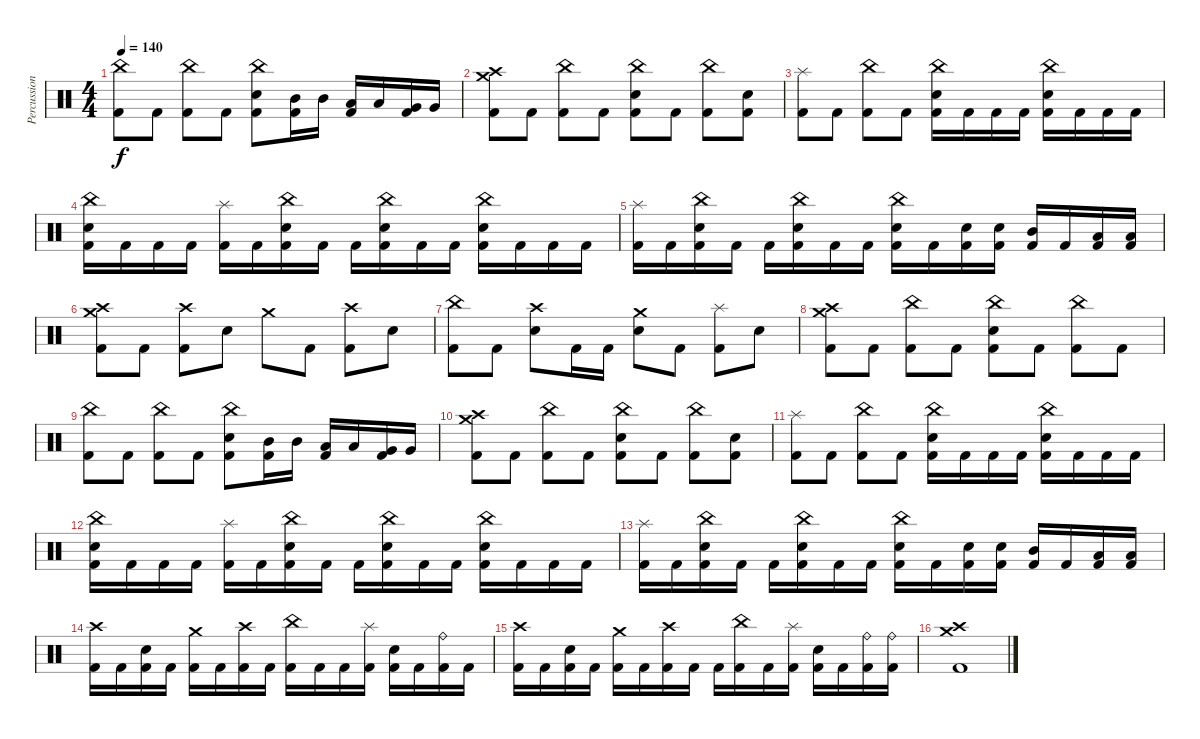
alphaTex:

\track ("Percussion" "Percussion") {instrument percussion}
\staff {score}
\articulation defaults
\ts (4 4)
\tempo 140
\clef neutral
\ks c
("China (hit)" "Kick (hit) 2").8{dy f} "Kick (hit) 2".8 ("China (hit)" "Kick (hit) 2").8 "Kick (hit) 2".8 ("China (hit)" "Electric Snare (hit)" "Kick (hit) 2").8 ("Mid Tom (hit)" "Kick (hit) 2").16 "Mid Tom (hit)".16 ("Low Tom (hit)" "Kick (hit) 2").16 "Low Tom (hit)".16 ("Very Low Tom (hit)" "Kick (hit) 2").16 "Very Low Tom (hit)".16 |
("Crash high (hit)" "Crash medium (hit)" "Kick (hit) 2").8 "Kick (hit) 2".8 ("China (hit)" "Kick (hit) 2").8 "Kick (hit) 2".8 ("China (hit)" "Electric Snare (hit)" "Kick (hit) 2").8 "Kick (hit) 2".8 ("China (hit)" "Kick (hit) 2").8 ("Electric Snare (hit)" "Kick (hit) 2").8 |
("Splash (hit)" "Kick (hit) 2").8 "Kick (hit) 2".8 ("China (hit)" "Kick (hit) 2").8 "Kick (hit) 2".8 ("China (hit)" "Electric Snare (hit)" "Kick (hit) 2").16 "Kick (hit) 2".16 "Kick (hit) 2".16 "Kick (hit) 2".16 ("China (hit)" "Electric Snare (hit)" "Kick (hit) 2").16 "Kick (hit) 2".16 "Kick (hit) 2".16 "Kick (hit) 2".16 |
("China (hit)" "Electric Snare (hit)" "Kick (hit) 2").16 "Kick (hit) 2".16 "Kick (hit) 2".16 "Kick (hit) 2".16 ("Splash (hit)" "Kick (hit) 2").16 "Kick (hit) 2".16 ("China (hit)" "Electric Snare (hit)" "Kick (hit) 2").16 "Kick (hit) 2".16 "Kick (hit) 2".16 ("China (hit)" "Electric Snare (hit)" "Kick (hit) 2").16 "Kick (hit) 2".16 "Kick (hit) 2".16 ("China (hit)" "Electric Snare (hit)" "Kick (hit) 2").16 "Kick (hit) 2".16 "Kick (hit) 2".16 "Kick (hit) 2".16 |
("Splash (hit)" "Kick (hit) 2").16 "Kick (hit) 2".16 ("China (hit)" "Electric Snare (hit)" "Kick (hit) 2").16 "Kick (hit) 2".16 "Kick (hit) 2".16 ("China (hit)" "Electric Snare (hit)" "Kick (hit) 2").16 "Kick (hit) 2".16 "Kick (hit) 2".16 ("China (hit)" "Electric Snare (hit)" "Kick (hit) 2").16 "Kick (hit) 2".16 ("Electric Snare (hit)" "Kick (hit) 2").16 ("Electric Snare (hit)" "Kick (hit) 2").16 ("Mid Tom (hit)" "Kick (hit) 2").16 "Kick (hit) 2".16 ("Low Tom (hit)" "Kick (hit) 2").16 ("Low Tom (hit)" "Kick (hit) 2").16 |
("Crash high (hit)" "Crash medium (hit)" "Kick (hit) 2").8 "Kick (hit) 2".8 ("Crash high (hit)" "Kick (hit) 2").8 "Electric Snare (hit)".8 "Crash medium (hit)".8 "Kick (hit) 2".8 ("Crash high (hit)" "Kick (hit) 2").8 "Electric Snare (hit)".8 |
("China (hit)" "Kick (hit) 2").8 "Kick (hit) 2".8 ("Crash high (hit)" "Electric Snare (hit)").8 "Kick (hit) 2".16 "Kick (hit) 2".16 ("Crash medium (hit)" "Electric Snare (hit)").8 "Kick (hit) 2".8 ("Splash (hit)" "Kick (hit) 2").8 "Electric Snare (hit)".8 |
("Crash high (hit)" "Crash medium (hit)" "Kick (hit) 2").8 "Kick (hit) 2".8 ("China (hit)" "Kick (hit) 2").8 "Kick (hit) 2".8 ("China (hit)" "Electric Snare (hit)" "Kick (hit) 2").8 "Kick (hit) 2".8 ("China (hit)" "Kick (hit) 2").8 "Kick (hit) 2".8 |
("China (hit)" "Kick (hit) 2").8 "Kick (hit) 2".8 ("China (hit)" "Kick (hit) 2").8 "Kick (hit) 2".8 ("China (hit)" "Electric Snare (hit)" "Kick (hit) 2").8 ("Mid Tom (hit)" "Kick (hit) 2").16 "Mid Tom (hit)".16 ("Low Tom (hit)" "Kick (hit) 2").16 "Low Tom (hit)".16 ("Very Low Tom (hit)" "Kick (hit) 2").16 "Very Low Tom (hit)".16 |
("Crash high (hit)" "Crash medium (hit)" "Kick (hit) 2").8 "Kick (hit) 2".8 ("China (hit)" "Kick (hit) 2").8 "Kick (hit) 2".8 ("China (hit)" "Electric Snare (hit)" "Kick (hit) 2").8 "Kick (hit) 2".8 ("China (hit)" "Kick (hit) 2").8 ("Electric Snare (hit)" "Kick (hit) 2").8 |
("Splash (hit)" "Kick (hit) 2").8 "Kick (hit) 2".8 ("China (hit)" "Kick (hit) 2").8 "Kick (hit) 2".8 ("China (hit)" "Electric Snare (hit)" "Kick (hit) 2").16 "Kick (hit) 2".16 "Kick (hit) 2".16 "Kick (hit) 2".16 ("China (hit)" "Electric Snare (hit)" "Kick (hit) 2").16 "Kick (hit) 2".16 "Kick (hit) 2".16 "Kick (hit) 2".16 |
("China (hit)" "Electric Snare (hit)" "Kick (hit) 2").16 "Kick (hit) 2".16 "Kick (hit) 2".16 "Kick (hit) 2".16 ("Splash (hit)" "Kick (hit) 2").16 "Kick (hit) 2".16 ("China (hit)" "Electric Snare (hit)" "Kick (hit) 2").16 "Kick (hit) 2".16 "Kick (hit) 2".16 ("China (hit)" "Electric Snare (hit)" "Kick (hit) 2").16 "Kick (hit) 2".16 "Kick (hit) 2".16 ("China (hit)" "Electric Snare (hit)" "Kick (hit) 2").16 "Kick (hit) 2".16 "Kick (hit) 2".16 "Kick (hit) 2".16 |
("Splash (hit)" "Kick (hit) 2").16 "Kick (hit) 2".16 ("China (hit)" "Electric Snare (hit)" "Kick (hit) 2").16 "Kick (hit) 2".16 "Kick (hit) 2".16 ("China (hit)" "Electric Snare (hit)" "Kick (hit) 2").16 "Kick (hit) 2".16 "Kick (hit) 2".16 ("China (hit)" "Electric Snare (hit)" "Kick (hit) 2").16 "Kick (hit) 2".16 ("Electric Snare (hit)" "Kick (hit) 2").16 ("Electric Snare (hit)" "Kick (hit) 2").16 ("Mid Tom (hit)" "Kick (hit) 2").16 "Kick (hit) 2".16 ("Low Tom (hit)" "Kick (hit) 2").16 ("Low Tom (hit)" "Kick (hit) 2").16 |
("Crash high (hit)" "Kick (hit) 2").16 "Kick (hit) 2".16 ("Electric Snare (hit)" "Kick (hit) 2").16 "Kick (hit) 2".16 ("Crash medium (hit)" "Kick (hit) 2").16 "Kick (hit) 2".16 ("Crash high (hit)" "Kick (hit) 2").16 "Kick (hit) 2".16 ("China (hit)" "Kick (hit) 2").16 "Kick (hit) 2".16 "Kick (hit) 2".16 ("Splash (hit)" "Kick (hit) 2").16 ("Electric Snare (hit)" "Kick (hit) 2").16 "Kick (hit) 2".16 ("Ride (bell)" "Kick (hit) 2").16 "Kick (hit) 2".16 |
("Crash high (hit)" "Kick (hit) 2").16 "Kick (hit) 2".16 ("Electric Snare (hit)" "Kick (hit) 2").16 "Kick (hit) 2".16 ("Crash medium (hit)" "Kick (hit) 2").16 "Kick (hit) 2".16 ("Crash high (hit)" "Kick (hit) 2").16 "Kick (hit) 2".16 "Kick (hit) 2".16 ("China (hit)" "Kick (hit) 2").16 "Kick (hit) 2".16 ("Splash (hit)" "Kick (hit) 2").16 ("Electric Snare (hit)" "Kick (hit) 2").16 "Kick (hit) 2".16 ("Ride (bell)" "Kick (hit) 2").16 ("Ride (bell)" "Kick (hit) 2").16 |
("Crash high (hit)" "Crash medium (hit)" "Kick (hit) 2").1
